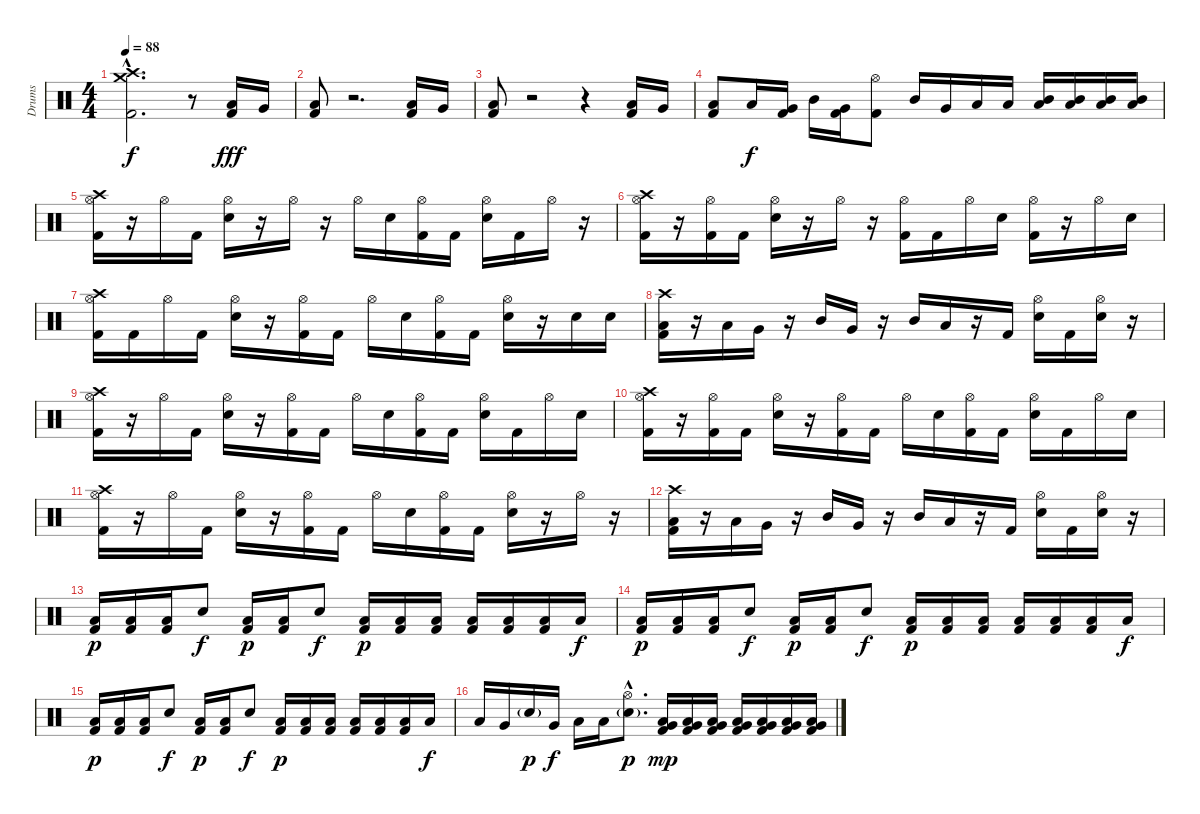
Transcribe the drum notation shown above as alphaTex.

\track ("Drums" "Drums") {instrument percussion}
\staff {score}
\articulation defaults
\ts (4 4)
\tempo 88
\clef neutral
\ks c
("Crash high (hit)"{hac} "Crash medium (hit)"{hac} "Kick (hit) 2"{hac}).2{d dy f} r.8 ("Kick (hit) 2" "Low Tom (hit)").16{dy fff} "Very Low Tom (hit)".16 |
("Kick (hit) 2" "Low Tom (hit)").8 r.2{d} ("Kick (hit) 2" "Low Tom (hit)").16 "Very Low Tom (hit)".16 |
("Kick (hit) 2" "Low Tom (hit)").8 r.2 r.4 ("Kick (hit) 2" "Low Tom (hit)").16 "Very Low Tom (hit)".16 |
("Kick (hit) 2" "Low Tom (hit)").8 "Low Tom (hit)".16{dy f} ("Kick (hit) 2" "Very Low Tom (hit)").16 "Mid Tom (hit)".16 ("Kick (hit) 2" "Very Low Tom (hit)").16 ("Hi-Hat (open)" "Kick (hit) 2").8 "Mid Tom (hit)".16 "Very Low Tom (hit)".16 "Low Tom (hit)".16 "Low Tom (hit)".16 ("Mid Tom (hit)" "Low Tom (hit)").16 ("Mid Tom (hit)" "Low Tom (hit)").16 ("Mid Tom (hit)" "Low Tom (hit)").16 ("Mid Tom (hit)" "Low Tom (hit)").16 |
("Crash high (hit)" "Hi-Hat (open)" "Kick (hit) 2").16 r.16 "Hi-Hat (open)".16 "Kick (hit) 2".16 ("Hi-Hat (open)" "Electric Snare (hit)").16 r.16 "Hi-Hat (open)".16 r.16 "Hi-Hat (open)".16 "Electric Snare (hit)".16 ("Hi-Hat (open)" "Kick (hit) 2").16 "Kick (hit) 2".16 ("Hi-Hat (open)" "Electric Snare (hit)").16 "Kick (hit) 2".16 "Hi-Hat (open)".16 r.16 |
("Crash high (hit)" "Hi-Hat (open)" "Kick (hit) 2").16 r.16 ("Hi-Hat (open)" "Kick (hit) 2").16 "Kick (hit) 2".16 ("Hi-Hat (open)" "Electric Snare (hit)").16 r.16 "Hi-Hat (open)".16 r.16 ("Hi-Hat (open)" "Kick (hit) 2").16 "Kick (hit) 2".16 "Hi-Hat (open)".16 "Electric Snare (hit)".16 ("Hi-Hat (open)" "Kick (hit) 2").16 r.16 "Hi-Hat (open)".16 "Electric Snare (hit)".16 |
("Crash high (hit)" "Hi-Hat (open)" "Kick (hit) 2").16 "Kick (hit) 2".16 "Hi-Hat (open)".16 "Kick (hit) 2".16 ("Hi-Hat (open)" "Electric Snare (hit)").16 r.16 ("Hi-Hat (open)" "Kick (hit) 2").16 "Kick (hit) 2".16 "Hi-Hat (open)".16 "Electric Snare (hit)".16 ("Hi-Hat (open)" "Kick (hit) 2").16 "Kick (hit) 2".16 ("Hi-Hat (open)" "Electric Snare (hit)").16 r.16 "Electric Snare (hit)".16 "Electric Snare (hit)".16 |
("Crash high (hit)" "Low Tom (hit)" "Kick (hit) 2").16 r.16 "Low Tom (hit)".16 "Very Low Tom (hit)".16 r.16 "Mid Tom (hit)".16 "Very Low Tom (hit)".16 r.16 "Mid Tom (hit)".16 "Low Tom (hit)".16 r.16 "Kick (hit) 2".16 ("Hi-Hat (open)" "Electric Snare (hit)").16 "Kick (hit) 2".16 ("Hi-Hat (open)" "Electric Snare (hit)").16 r.16 |
("Crash high (hit)" "Hi-Hat (open)" "Kick (hit) 2").16 r.16 "Hi-Hat (open)".16 "Kick (hit) 2".16 ("Hi-Hat (open)" "Electric Snare (hit)").16 r.16 ("Hi-Hat (open)" "Kick (hit) 2").16 "Kick (hit) 2".16 "Hi-Hat (open)".16 "Electric Snare (hit)".16 ("Hi-Hat (open)" "Kick (hit) 2").16 "Kick (hit) 2".16 ("Hi-Hat (open)" "Electric Snare (hit)").16 "Kick (hit) 2".16 "Hi-Hat (open)".16 "Electric Snare (hit)".16 |
("Crash high (hit)" "Hi-Hat (open)" "Kick (hit) 2").16 r.16 ("Hi-Hat (open)" "Kick (hit) 2").16 "Kick (hit) 2".16 ("Hi-Hat (open)" "Electric Snare (hit)").16 r.16 ("Hi-Hat (open)" "Kick (hit) 2").16 "Kick (hit) 2".16 "Hi-Hat (open)".16 "Electric Snare (hit)".16 ("Hi-Hat (open)" "Kick (hit) 2").16 "Kick (hit) 2".16 ("Hi-Hat (open)" "Electric Snare (hit)").16 "Kick (hit) 2".16 "Hi-Hat (open)".16 "Electric Snare (hit)".16 |
("Crash high (hit)" "Hi-Hat (open)" "Kick (hit) 2").16 r.16 "Hi-Hat (open)".16 "Kick (hit) 2".16 ("Hi-Hat (open)" "Electric Snare (hit)").16 r.16 ("Hi-Hat (open)" "Kick (hit) 2").16 "Kick (hit) 2".16 "Hi-Hat (open)".16 "Electric Snare (hit)".16 ("Hi-Hat (open)" "Kick (hit) 2").16 "Kick (hit) 2".16 ("Hi-Hat (open)" "Electric Snare (hit)").16 r.16 "Hi-Hat (open)".16 r.16 |
("Crash high (hit)" "Low Tom (hit)" "Kick (hit) 2").16 r.16 "Low Tom (hit)".16 "Very Low Tom (hit)".16 r.16 "Mid Tom (hit)".16 "Very Low Tom (hit)".16 r.16 "Mid Tom (hit)".16 "Low Tom (hit)".16 r.16 "Kick (hit) 2".16 ("Hi-Hat (open)" "Electric Snare (hit)").16 "Kick (hit) 2".16 ("Hi-Hat (open)" "Electric Snare (hit)").16 r.16 |
("Low Floor Tom (hit)" "Kick (hit) 2").16{dy p} ("Low Floor Tom (hit)" "Kick (hit) 2").16 ("Low Floor Tom (hit)" "Kick (hit) 2").16 "Electric Snare (hit)".8{dy f} ("Low Floor Tom (hit)" "Kick (hit) 2").16{dy p} ("Low Floor Tom (hit)" "Kick (hit) 2").16 "Electric Snare (hit)".8{dy f} ("Low Floor Tom (hit)" "Kick (hit) 2").16{dy p} ("Low Floor Tom (hit)" "Kick (hit) 2").16 ("Low Floor Tom (hit)" "Kick (hit) 2").16 ("Low Floor Tom (hit)" "Kick (hit) 2").16 ("Low Floor Tom (hit)" "Kick (hit) 2").16 ("Low Floor Tom (hit)" "Kick (hit) 2").16 "Low Floor Tom (hit)".16{dy f} |
("Low Floor Tom (hit)" "Kick (hit) 2").16{dy p} ("Low Floor Tom (hit)" "Kick (hit) 2").16 ("Low Floor Tom (hit)" "Kick (hit) 2").16 "Electric Snare (hit)".8{dy f} ("Low Floor Tom (hit)" "Kick (hit) 2").16{dy p} ("Low Floor Tom (hit)" "Kick (hit) 2").16 "Electric Snare (hit)".8{dy f} ("Low Floor Tom (hit)" "Kick (hit) 2").16{dy p} ("Low Floor Tom (hit)" "Kick (hit) 2").16 ("Low Floor Tom (hit)" "Kick (hit) 2").16 ("Low Floor Tom (hit)" "Kick (hit) 2").16 ("Low Floor Tom (hit)" "Kick (hit) 2").16 ("Low Floor Tom (hit)" "Kick (hit) 2").16 "Low Floor Tom (hit)".16{dy f} |
("Low Floor Tom (hit)" "Kick (hit) 2").16{dy p} ("Low Floor Tom (hit)" "Kick (hit) 2").16 ("Low Floor Tom (hit)" "Kick (hit) 2").16 "Electric Snare (hit)".8{dy f} ("Low Floor Tom (hit)" "Kick (hit) 2").16{dy p} ("Low Floor Tom (hit)" "Kick (hit) 2").16 "Electric Snare (hit)".8{dy f} ("Low Floor Tom (hit)" "Kick (hit) 2").16{dy p} ("Low Floor Tom (hit)" "Kick (hit) 2").16 ("Low Floor Tom (hit)" "Kick (hit) 2").16 ("Low Floor Tom (hit)" "Kick (hit) 2").16 ("Low Floor Tom (hit)" "Kick (hit) 2").16 ("Low Floor Tom (hit)" "Kick (hit) 2").16 "Low Floor Tom (hit)".16{dy f} |
"Low Tom (hit)".16 "Very Low Tom (hit)".16 "Electric Snare (hit)"{g}.16{dy p} "Very Low Tom (hit)".16{dy f} "Low Floor Tom (hit)".16 "Low Tom (hit)".16 ("Electric Snare (hit)"{g hac} "Hi-Hat (open)"{hac}).8{d dy p} ("Very Low Tom (hit)" "Kick (hit) 2" "Low Floor Tom (hit)").16{dy mp} ("Very Low Tom (hit)" "Kick (hit) 2" "Low Floor Tom (hit)").16 ("Very Low Tom (hit)" "Kick (hit) 2" "Low Floor Tom (hit)").16 ("Very Low Tom (hit)" "Kick (hit) 2" "Low Floor Tom (hit)").16 ("Very Low Tom (hit)" "Kick (hit) 2" "Low Floor Tom (hit)").16 ("Very Low Tom (hit)" "Kick (hit) 2" "Low Floor Tom (hit)").16 ("Very Low Tom (hit)" "Kick (hit) 2" "Low Floor Tom (hit)").16
